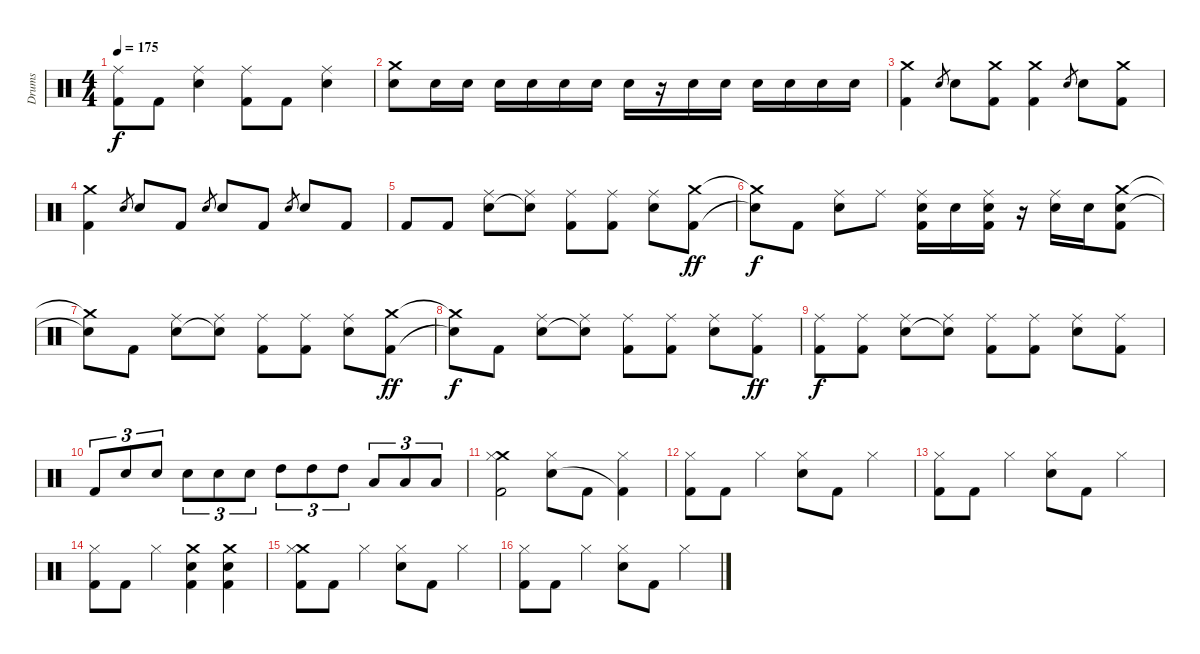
\track ("Drums" "Drums") {instrument percussion}
\staff {score}
\articulation defaults
\ts (4 4)
\tempo 175
\clef neutral
\ks c
("Ride (middle)" "Kick (hit) 2").8{dy f} "Kick (hit) 2".8 ("Ride (middle)" "Snare (hit) 2").4 ("Ride (middle)" "Kick (hit) 2").8 "Kick (hit) 2".8 ("Ride (middle)" "Snare (hit) 2").4 |
("Crash medium (hit)" "Snare (hit) 2").8 "Snare (hit) 2".16 "Snare (hit) 2".16 "Snare (hit) 2".16 "Snare (hit) 2".16 "Snare (hit) 2".16 "Snare (hit) 2".16 "Snare (hit) 2".16 r.16 "Snare (hit) 2".16 "Snare (hit) 2".16 "Snare (hit) 2".16 "Snare (hit) 2".16 "Snare (hit) 2".16 "Snare (hit) 2".16 |
("Crash medium (hit)" "Kick (hit) 2").4 "Electric Snare (hit)".8{gr} "Snare (hit) 2".8 ("Crash medium (hit)" "Kick (hit) 2").8 ("Crash medium (hit)" "Kick (hit) 2").4 "Electric Snare (hit)".8{gr} "Snare (hit) 2".8 ("Crash medium (hit)" "Kick (hit) 2").8 |
("Crash medium (hit)" "Kick (hit) 2").4 "Electric Snare (hit)".8{gr} "Snare (hit) 2".8 "Kick (hit) 2".8 "Electric Snare (hit)".8{gr} "Snare (hit) 2".8 "Kick (hit) 2".8 "Electric Snare (hit)".8{gr} "Snare (hit) 2".8 "Kick (hit) 2".8 |
"Kick (hit) 2".8 "Kick (hit) 2".8 ("Ride (middle)" "Snare (hit) 2").8 ("Ride (middle)" "Snare (hit) 2"{t}).8 ("Ride (middle)" "Kick (hit) 2").8 ("Ride (middle)" "Kick (hit) 2").8 ("Ride (middle)" "Snare (hit) 2").8 ("Crash medium (hit)" "Kick (hit) 2").8{dy ff} |
("Crash medium (hit)"{t} "Snare (hit) 2"{t}).8{dy f} "Kick (hit) 2".8 ("Ride (middle)" "Snare (hit) 2").8 "Ride (middle)".8 ("Ride (middle)" "Snare (hit) 2" "Kick (hit) 2").16 "Snare (hit) 2".16 ("Ride (middle)" "Snare (hit) 2" "Kick (hit) 2").16 r.16 ("Ride (middle)" "Snare (hit) 2").16 "Snare (hit) 2".16 ("Crash medium (hit)" "Snare (hit) 2" "Kick (hit) 2").8 |
("Crash medium (hit)"{t} "Snare (hit) 2"{t}).8 "Kick (hit) 2".8 ("Ride (middle)" "Snare (hit) 2").8 ("Ride (middle)" "Snare (hit) 2"{t}).8 ("Ride (middle)" "Kick (hit) 2").8 ("Ride (middle)" "Kick (hit) 2").8 ("Ride (middle)" "Snare (hit) 2").8 ("Crash medium (hit)" "Kick (hit) 2").8{dy ff} |
("Crash medium (hit)"{t} "Snare (hit) 2"{t}).8{dy f} "Kick (hit) 2".8 ("Ride (middle)" "Snare (hit) 2").8 ("Ride (middle)" "Snare (hit) 2"{t}).8 ("Ride (middle)" "Kick (hit) 2").8 ("Ride (middle)" "Kick (hit) 2").8 ("Ride (middle)" "Snare (hit) 2").8 ("Ride (middle)" "Kick (hit) 2").8{dy ff} |
("Ride (middle)" "Kick (hit) 2").8{dy f} ("Ride (middle)" "Kick (hit) 2").8 ("Ride (middle)" "Snare (hit) 2").8 ("Ride (middle)" "Snare (hit) 2"{t}).8 ("Ride (middle)" "Kick (hit) 2").8 ("Ride (middle)" "Kick (hit) 2").8 ("Ride (middle)" "Snare (hit) 2").8 ("Ride (middle)" "Kick (hit) 2").8 |
"Kick (hit) 2".8{tu (3 2)} "Snare (hit) 2".8{tu (3 2)} "Snare (hit) 2".8{tu (3 2)} "Snare (hit) 2".8{tu (3 2)} "Snare (hit) 2".8{tu (3 2)} "Snare (hit) 2".8{tu (3 2)} "High Tom (hit)".8{tu (3 2)} "High Tom (hit)".8{tu (3 2)} "High Tom (hit)".8{tu (3 2)} "Low Tom (hit)".8{tu (3 2)} "Low Tom (hit)".8{tu (3 2)} "Low Tom (hit)".8{tu (3 2)} |
("Crash medium (hit)" "Hi-Hat (closed)" "Kick (hit) 2").2 ("Hi-Hat (closed)" "Snare (hit) 2").8 "Kick (hit) 2".8 ("Hi-Hat (closed)" "Kick (hit) 2"{t}).4 |
("Hi-Hat (closed)" "Kick (hit) 2").8 "Kick (hit) 2".8 "Hi-Hat (closed)".4 ("Hi-Hat (closed)" "Snare (hit) 2").8 "Kick (hit) 2".8 "Hi-Hat (closed)".4 |
("Hi-Hat (closed)" "Kick (hit) 2").8 "Kick (hit) 2".8 "Hi-Hat (closed)".4 ("Hi-Hat (closed)" "Snare (hit) 2").8 "Kick (hit) 2".8 "Hi-Hat (closed)".4 |
("Hi-Hat (closed)" "Kick (hit) 2").8 "Kick (hit) 2".8 "Hi-Hat (closed)".4 ("Crash medium (hit)" "Snare (hit) 2" "Kick (hit) 2").4 ("Crash medium (hit)" "Snare (hit) 2" "Kick (hit) 2").4 |
("Crash medium (hit)" "Hi-Hat (closed)" "Kick (hit) 2").8 "Kick (hit) 2".8 "Hi-Hat (closed)".4 ("Hi-Hat (closed)" "Snare (hit) 2").8 "Kick (hit) 2".8 "Hi-Hat (closed)".4 |
("Hi-Hat (closed)" "Kick (hit) 2").8 "Kick (hit) 2".8 "Hi-Hat (closed)".4 ("Hi-Hat (closed)" "Snare (hit) 2").8 "Kick (hit) 2".8 "Hi-Hat (closed)".4
